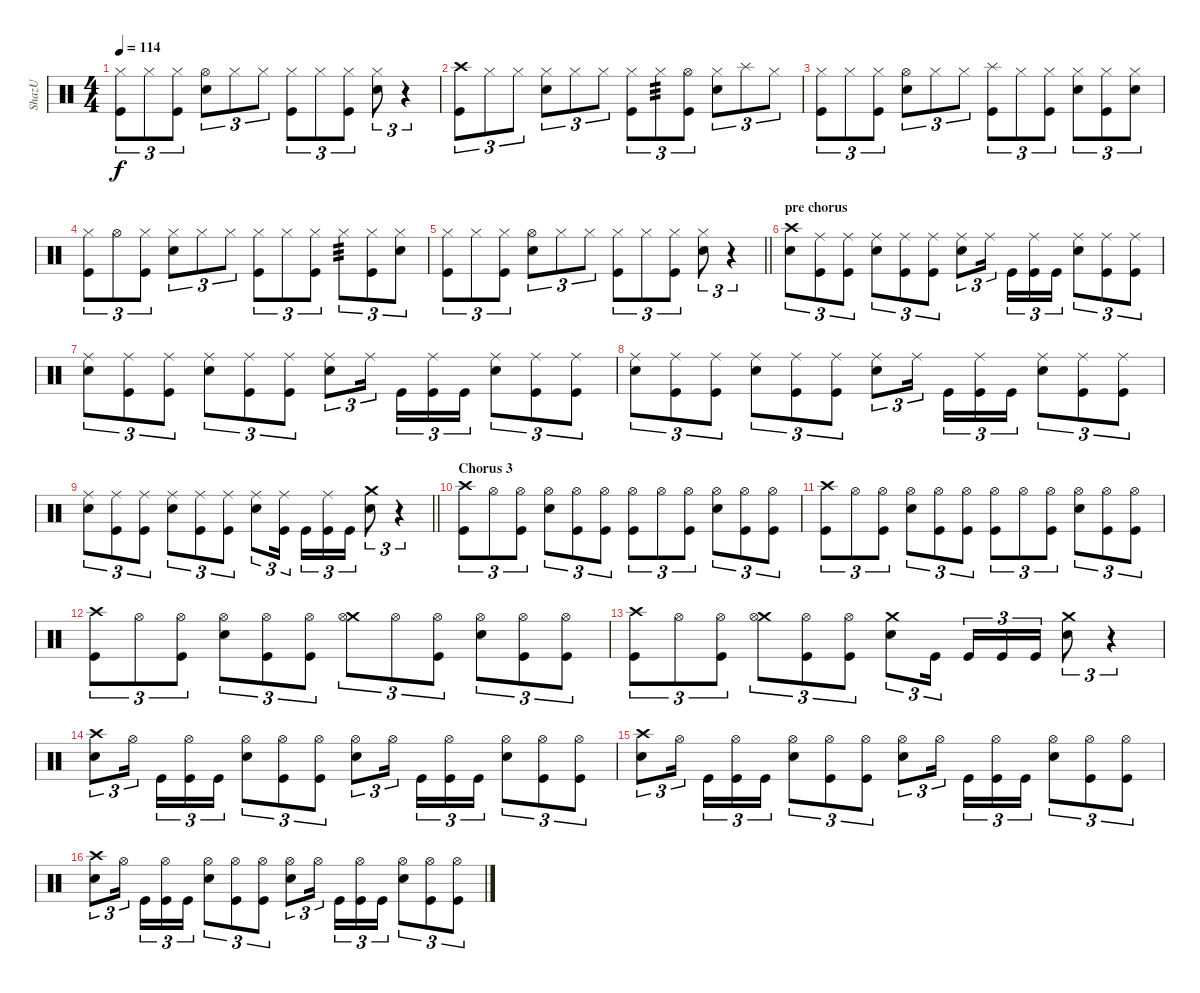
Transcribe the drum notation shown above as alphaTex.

\track ("ShazU" "ShazU") {instrument percussion}
\staff {score}
\articulation defaults
\ts (4 4)
\tempo 114
\clef neutral
\ks c
("Kick (hit)" "Hi-Hat (closed)").8{tu (3 2) dy f} "Hi-Hat (closed)".8{tu (3 2)} ("Kick (hit)" "Hi-Hat (closed)").8{tu (3 2)} ("Snare (hit) 2" "Hi-Hat (open)").8{tu (3 2)} "Hi-Hat (closed)".8{tu (3 2)} "Hi-Hat (closed)".8{tu (3 2)} ("Kick (hit)" "Hi-Hat (closed)").8{tu (3 2)} "Hi-Hat (closed)".8{tu (3 2)} ("Kick (hit)" "Hi-Hat (closed)").8{tu (3 2)} ("Snare (hit) 2" "Hi-Hat (closed)").8{tu (3 2)} r.4{tu (3 2)} |
("Kick (hit)" "Crash high (hit)").8{tu (3 2)} "Hi-Hat (closed)".8{tu (3 2)} "Hi-Hat (closed)".8{tu (3 2)} ("Snare (hit) 2" "Hi-Hat (closed)").8{tu (3 2)} "Hi-Hat (closed)".8{tu (3 2)} "Hi-Hat (closed)".8{tu (3 2)} ("Kick (hit)" "Hi-Hat (closed)").8{tu (3 2)} "Hi-Hat (closed)".8{tu (3 2) tp 3} ("Kick (hit)" "Hi-Hat (open)").8{tu (3 2)} ("Snare (hit) 2" "Hi-Hat (closed)").8{tu (3 2)} "Splash (hit)".8{tu (3 2)} "Hi-Hat (closed)".8{tu (3 2)} |
("Kick (hit)" "Hi-Hat (closed)").8{tu (3 2)} "Hi-Hat (closed)".8{tu (3 2)} ("Kick (hit)" "Hi-Hat (closed)").8{tu (3 2)} ("Snare (hit) 2" "Hi-Hat (open)").8{tu (3 2)} "Hi-Hat (closed)".8{tu (3 2)} "Hi-Hat (closed)".8{tu (3 2)} ("Kick (hit)" "Splash (hit)").8{tu (3 2)} "Hi-Hat (closed)".8{tu (3 2)} ("Kick (hit)" "Hi-Hat (closed)").8{tu (3 2)} ("Snare (hit) 2" "Hi-Hat (closed)").8{tu (3 2)} ("Kick (hit)" "Hi-Hat (closed)").8{tu (3 2)} ("Snare (hit) 2" "Hi-Hat (closed)").8{tu (3 2)} |
("Kick (hit)" "Hi-Hat (closed)").8{tu (3 2)} "Hi-Hat (open)".8{tu (3 2)} ("Kick (hit)" "Hi-Hat (closed)").8{tu (3 2)} ("Snare (hit) 2" "Hi-Hat (closed)").8{tu (3 2)} "Hi-Hat (closed)".8{tu (3 2)} "Hi-Hat (closed)".8{tu (3 2)} ("Kick (hit)" "Hi-Hat (closed)").8{tu (3 2)} "Hi-Hat (closed)".8{tu (3 2)} ("Kick (hit)" "Hi-Hat (closed)").8{tu (3 2)} "Hi-Hat (closed)".8{tu (3 2) tp 3} ("Kick (hit)" "Hi-Hat (closed)").8{tu (3 2)} ("Snare (hit) 2" "Hi-Hat (closed)").8{tu (3 2)} |
\barLineRight lightlight
("Kick (hit)" "Hi-Hat (closed)").8{tu (3 2)} "Hi-Hat (closed)".8{tu (3 2)} ("Kick (hit)" "Hi-Hat (closed)").8{tu (3 2)} ("Snare (hit) 2" "Hi-Hat (open)").8{tu (3 2)} "Hi-Hat (closed)".8{tu (3 2)} "Hi-Hat (closed)".8{tu (3 2)} ("Kick (hit)" "Hi-Hat (closed)").8{tu (3 2)} "Hi-Hat (closed)".8{tu (3 2)} ("Kick (hit)" "Hi-Hat (closed)").8{tu (3 2)} ("Snare (hit) 2" "Hi-Hat (closed)").8{tu (3 2)} r.4{tu (3 2)} |
\section ("" "pre chorus")
("Snare (hit) 2" "Crash high (hit)").8{tu (3 2)} ("Kick (hit)" "Ride (middle)").8{tu (3 2)} ("Kick (hit)" "Ride (middle)").8{tu (3 2)} ("Snare (hit) 2" "Ride (middle)").8{tu (3 2)} ("Kick (hit)" "Ride (middle)").8{tu (3 2)} ("Kick (hit)" "Ride (middle)").8{tu (3 2)} ("Snare (hit) 2" "Ride (middle)").8{tu (3 2)} "Ride (middle)".16{tu (3 2) beam splitsecondary} "Kick (hit)".16{tu (3 2)} ("Kick (hit)" "Ride (middle)").16{tu (3 2)} "Kick (hit)".16{tu (3 2)} ("Snare (hit) 2" "Ride (middle)").8{tu (3 2)} ("Kick (hit)" "Ride (middle)").8{tu (3 2)} ("Kick (hit)" "Ride (middle)").8{tu (3 2)} |
("Snare (hit) 2" "Ride (middle)").8{tu (3 2)} ("Kick (hit)" "Ride (middle)").8{tu (3 2)} ("Kick (hit)" "Ride (middle)").8{tu (3 2)} ("Snare (hit) 2" "Ride (middle)").8{tu (3 2)} ("Kick (hit)" "Ride (middle)").8{tu (3 2)} ("Kick (hit)" "Ride (middle)").8{tu (3 2)} ("Snare (hit) 2" "Ride (middle)").8{tu (3 2)} "Ride (middle)".16{tu (3 2) beam splitsecondary} "Kick (hit)".16{tu (3 2)} ("Kick (hit)" "Ride (middle)").16{tu (3 2)} "Kick (hit)".16{tu (3 2)} ("Snare (hit) 2" "Ride (middle)").8{tu (3 2)} ("Kick (hit)" "Ride (middle)").8{tu (3 2)} ("Kick (hit)" "Ride (middle)").8{tu (3 2)} |
("Snare (hit) 2" "Ride (middle)").8{tu (3 2)} ("Kick (hit)" "Ride (middle)").8{tu (3 2)} ("Kick (hit)" "Ride (middle)").8{tu (3 2)} ("Snare (hit) 2" "Ride (middle)").8{tu (3 2)} ("Kick (hit)" "Ride (middle)").8{tu (3 2)} ("Kick (hit)" "Ride (middle)").8{tu (3 2)} ("Snare (hit) 2" "Ride (middle)").8{tu (3 2)} "Ride (middle)".16{tu (3 2) beam splitsecondary} "Kick (hit)".16{tu (3 2)} ("Kick (hit)" "Ride (middle)").16{tu (3 2)} "Kick (hit)".16{tu (3 2)} ("Snare (hit) 2" "Ride (middle)").8{tu (3 2)} ("Kick (hit)" "Ride (middle)").8{tu (3 2)} ("Kick (hit)" "Ride (middle)").8{tu (3 2)} |
\barLineRight lightlight
("Snare (hit) 2" "Ride (middle)").8{tu (3 2)} ("Kick (hit)" "Ride (middle)").8{tu (3 2)} ("Kick (hit)" "Ride (middle)").8{tu (3 2)} ("Snare (hit) 2" "Ride (middle)").8{tu (3 2)} ("Kick (hit)" "Ride (middle)").8{tu (3 2)} ("Kick (hit)" "Ride (middle)").8{tu (3 2)} ("Snare (hit) 2" "Ride (middle)").8{tu (3 2)} ("Kick (hit)" "Ride (middle)").16{tu (3 2) beam splitsecondary} "Kick (hit)".16{tu (3 2)} ("Kick (hit)" "Ride (middle)").16{tu (3 2)} "Kick (hit)".16{tu (3 2)} ("Snare (hit) 2" "Crash medium (hit)").8{tu (3 2)} r.4{tu (3 2)} |
\section ("" "Chorus 3")
("Kick (hit)" "Crash high (hit)").8{tu (3 2)} "Hi-Hat (open)".8{tu (3 2)} ("Kick (hit)" "Hi-Hat (open)").8{tu (3 2)} ("Snare (hit) 2" "Hi-Hat (open)").8{tu (3 2)} ("Kick (hit)" "Hi-Hat (open)").8{tu (3 2)} ("Kick (hit)" "Hi-Hat (open)").8{tu (3 2)} ("Kick (hit)" "Hi-Hat (open)").8{tu (3 2)} "Hi-Hat (open)".8{tu (3 2)} ("Kick (hit)" "Hi-Hat (open)").8{tu (3 2)} ("Snare (hit) 2" "Hi-Hat (open)").8{tu (3 2)} ("Kick (hit)" "Hi-Hat (open)").8{tu (3 2)} ("Kick (hit)" "Hi-Hat (open)").8{tu (3 2)} |
("Kick (hit)" "Crash high (hit)").8{tu (3 2)} "Hi-Hat (open)".8{tu (3 2)} ("Kick (hit)" "Hi-Hat (open)").8{tu (3 2)} ("Snare (hit) 2" "Hi-Hat (open)").8{tu (3 2)} ("Kick (hit)" "Hi-Hat (open)").8{tu (3 2)} ("Kick (hit)" "Hi-Hat (open)").8{tu (3 2)} ("Kick (hit)" "Hi-Hat (open)").8{tu (3 2)} "Hi-Hat (open)".8{tu (3 2)} ("Kick (hit)" "Hi-Hat (open)").8{tu (3 2)} ("Snare (hit) 2" "Hi-Hat (open)").8{tu (3 2)} ("Kick (hit)" "Hi-Hat (open)").8{tu (3 2)} ("Kick (hit)" "Hi-Hat (open)").8{tu (3 2)} |
("Kick (hit)" "Crash high (hit)").8{tu (3 2)} "Hi-Hat (open)".8{tu (3 2)} ("Kick (hit)" "Hi-Hat (open)").8{tu (3 2)} ("Snare (hit) 2" "Hi-Hat (open)").8{tu (3 2)} ("Kick (hit)" "Hi-Hat (open)").8{tu (3 2)} ("Kick (hit)" "Hi-Hat (open)").8{tu (3 2)} ("Crash medium (hit)" "Hi-Hat (open)").8{tu (3 2)} "Hi-Hat (open)".8{tu (3 2)} ("Kick (hit)" "Hi-Hat (open)").8{tu (3 2)} ("Snare (hit) 2" "Hi-Hat (open)").8{tu (3 2)} ("Kick (hit)" "Hi-Hat (open)").8{tu (3 2)} ("Kick (hit)" "Hi-Hat (open)").8{tu (3 2)} |
("Kick (hit)" "Crash high (hit)").8{tu (3 2)} "Hi-Hat (open)".8{tu (3 2)} ("Kick (hit)" "Hi-Hat (open)").8{tu (3 2)} ("Crash medium (hit)" "Hi-Hat (open)").8{tu (3 2)} ("Kick (hit)" "Hi-Hat (open)").8{tu (3 2)} ("Kick (hit)" "Hi-Hat (open)").8{tu (3 2)} ("Snare (hit) 2" "Crash medium (hit)").8{tu (3 2)} "Kick (hit)".16{tu (3 2) beam splitsecondary} "Kick (hit)".16{tu (3 2)} "Kick (hit)".16{tu (3 2)} "Kick (hit)".16{tu (3 2)} ("Snare (hit) 2" "Crash medium (hit)").8{tu (3 2)} r.4{tu (3 2)} |
("Snare (hit) 2" "Crash high (hit)").8{tu (3 2)} "Hi-Hat (open)".16{tu (3 2) beam splitsecondary} "Kick (hit)".16{tu (3 2)} ("Kick (hit)" "Hi-Hat (open)").16{tu (3 2)} "Kick (hit)".16{tu (3 2)} ("Snare (hit) 2" "Hi-Hat (open)").8{tu (3 2)} ("Kick (hit)" "Hi-Hat (open)").8{tu (3 2)} ("Kick (hit)" "Hi-Hat (open)").8{tu (3 2)} ("Snare (hit) 2" "Hi-Hat (open)").8{tu (3 2)} "Hi-Hat (open)".16{tu (3 2) beam splitsecondary} "Kick (hit)".16{tu (3 2)} ("Kick (hit)" "Hi-Hat (open)").16{tu (3 2)} "Kick (hit)".16{tu (3 2)} ("Snare (hit) 2" "Hi-Hat (open)").8{tu (3 2)} ("Kick (hit)" "Hi-Hat (open)").8{tu (3 2)} ("Kick (hit)" "Hi-Hat (open)").8{tu (3 2)} |
("Snare (hit) 2" "Crash high (hit)").8{tu (3 2)} "Hi-Hat (open)".16{tu (3 2) beam splitsecondary} "Kick (hit)".16{tu (3 2)} ("Kick (hit)" "Hi-Hat (open)").16{tu (3 2)} "Kick (hit)".16{tu (3 2)} ("Snare (hit) 2" "Hi-Hat (open)").8{tu (3 2)} ("Kick (hit)" "Hi-Hat (open)").8{tu (3 2)} ("Kick (hit)" "Hi-Hat (open)").8{tu (3 2)} ("Snare (hit) 2" "Hi-Hat (open)").8{tu (3 2)} "Hi-Hat (open)".16{tu (3 2) beam splitsecondary} "Kick (hit)".16{tu (3 2)} ("Kick (hit)" "Hi-Hat (open)").16{tu (3 2)} "Kick (hit)".16{tu (3 2)} ("Snare (hit) 2" "Hi-Hat (open)").8{tu (3 2)} ("Kick (hit)" "Hi-Hat (open)").8{tu (3 2)} ("Kick (hit)" "Hi-Hat (open)").8{tu (3 2)} |
("Snare (hit) 2" "Crash high (hit)").8{tu (3 2)} "Hi-Hat (open)".16{tu (3 2) beam splitsecondary} "Kick (hit)".16{tu (3 2)} ("Kick (hit)" "Hi-Hat (open)").16{tu (3 2)} "Kick (hit)".16{tu (3 2)} ("Snare (hit) 2" "Hi-Hat (open)").8{tu (3 2)} ("Kick (hit)" "Hi-Hat (open)").8{tu (3 2)} ("Kick (hit)" "Hi-Hat (open)").8{tu (3 2)} ("Snare (hit) 2" "Hi-Hat (open)").8{tu (3 2)} "Hi-Hat (open)".16{tu (3 2) beam splitsecondary} "Kick (hit)".16{tu (3 2)} ("Kick (hit)" "Hi-Hat (open)").16{tu (3 2)} "Kick (hit)".16{tu (3 2)} ("Snare (hit) 2" "Hi-Hat (open)").8{tu (3 2)} ("Kick (hit)" "Hi-Hat (open)").8{tu (3 2)} ("Kick (hit)" "Hi-Hat (open)").8{tu (3 2)}
